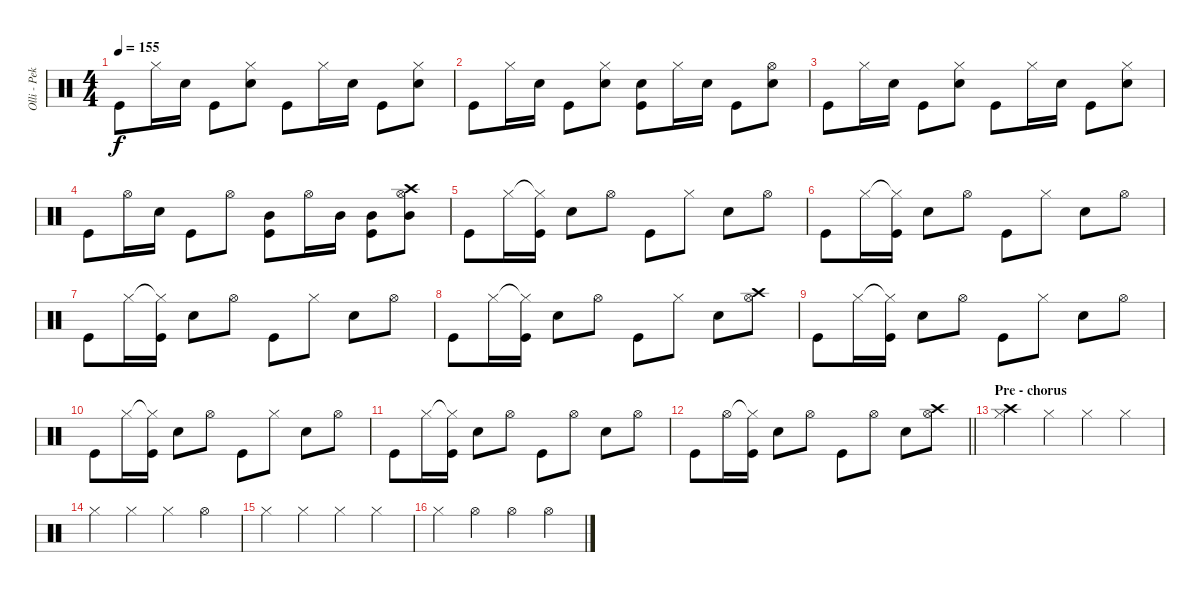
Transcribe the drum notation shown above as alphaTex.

\track ("Olli - Pekka" "Olli - Pek") {instrument percussion}
\staff {score}
\articulation defaults
\ts (4 4)
\tempo 155
\clef neutral
\ks c "Kick (hit)".8{dy f} "Hi-Hat (closed)".16 "Snare (hit) 2".16 "Kick (hit)".8
("Hi-Hat (closed)" "Snare (hit) 2").8 "Kick (hit)".8 "Hi-Hat (closed)".16 "Snare (hit) 2".16 "Kick (hit)".8 ("Hi-Hat (closed)" "Snare (hit) 2").8 |
"Kick (hit)".8 "Hi-Hat (closed)".16 "Snare (hit) 2".16 "Kick (hit)".8 ("Hi-Hat (closed)" "Snare (hit) 2").8 ("Snare (hit) 2" "Kick (hit)").8 "Hi-Hat (closed)".16 "Snare (hit) 2".16 "Kick (hit)".8 ("Hi-Hat (open)" "Snare (hit) 2").8 |
"Kick (hit)".8 "Hi-Hat (closed)".16 "Snare (hit) 2".16 "Kick (hit)".8 ("Hi-Hat (closed)" "Snare (hit) 2").8 "Kick (hit)".8 "Hi-Hat (closed)".16 "Snare (hit) 2".16 "Kick (hit)".8 ("Hi-Hat (closed)" "Snare (hit) 2").8 |
"Kick (hit)".8 "Hi-Hat (open)".16 "Snare (hit) 2".16 "Kick (hit)".8 "Hi-Hat (open)".8 ("Mid Tom (hit)" "Kick (hit)").8 "Hi-Hat (open)".16 "Mid Tom (hit)".16 ("Mid Tom (hit)" "Kick (hit)").8 ("Crash high (hit)" "Hi-Hat (open)" "Mid Tom (hit)").8 |
"Kick (hit)".8 "Hi-Hat (closed)".16 ("Hi-Hat (closed)"{t} "Kick (hit)").16 "Snare (hit) 2".8 "Hi-Hat (open)".8 "Kick (hit)".8 "Hi-Hat (closed)".8 "Snare (hit) 2".8 "Hi-Hat (open)".8 |
"Kick (hit)".8 "Hi-Hat (closed)".16 ("Hi-Hat (closed)"{t} "Kick (hit)").16 "Snare (hit) 2".8 "Hi-Hat (open)".8 "Kick (hit)".8 "Hi-Hat (closed)".8 "Snare (hit) 2".8 "Hi-Hat (open)".8 |
"Kick (hit)".8 "Hi-Hat (closed)".16 ("Hi-Hat (closed)"{t} "Kick (hit)").16 "Snare (hit) 2".8 "Hi-Hat (open)".8 "Kick (hit)".8 "Hi-Hat (closed)".8 "Snare (hit) 2".8 "Hi-Hat (open)".8 |
"Kick (hit)".8 "Hi-Hat (closed)".16 ("Hi-Hat (closed)"{t} "Kick (hit)").16 "Snare (hit) 2".8 "Hi-Hat (open)".8 "Kick (hit)".8 "Hi-Hat (closed)".8 "Snare (hit) 2".8 ("Crash high (hit)" "Hi-Hat (open)").8 |
"Kick (hit)".8 "Hi-Hat (closed)".16 ("Hi-Hat (closed)"{t} "Kick (hit)").16 "Snare (hit) 2".8 "Hi-Hat (open)".8 "Kick (hit)".8 "Hi-Hat (closed)".8 "Snare (hit) 2".8 "Hi-Hat (open)".8 |
"Kick (hit)".8 "Hi-Hat (closed)".16 ("Hi-Hat (closed)"{t} "Kick (hit)").16 "Snare (hit) 2".8 "Hi-Hat (open)".8 "Kick (hit)".8 "Hi-Hat (closed)".8 "Snare (hit) 2".8 "Hi-Hat (open)".8 |
"Kick (hit)".8 "Hi-Hat (closed)".16 ("Hi-Hat (closed)"{t} "Kick (hit)").16 "Snare (hit) 2".8 "Hi-Hat (open)".8 "Kick (hit)".8 "Hi-Hat (open)".8 "Snare (hit) 2".8 "Hi-Hat (open)".8 |
\barLineRight lightlight "Kick (hit)".8 "Hi-Hat (open)".16
("Hi-Hat (closed)"{t} "Kick (hit)").16 "Snare (hit) 2".8 "Hi-Hat (open)".8 "Kick (hit)".8 "Hi-Hat (open)".8 "Snare (hit) 2".8 ("Crash high (hit)" "Hi-Hat (open)").8 |
\section ("" "Pre - chorus")
("Crash high (hit)" "Hi-Hat (closed)").4{volume 11} "Hi-Hat (closed)".4 "Hi-Hat (closed)".4 "Hi-Hat (closed)".4 |
"Hi-Hat (closed)".4 "Hi-Hat (closed)".4 "Hi-Hat (closed)".4 "Hi-Hat (open)".4 |
"Hi-Hat (closed)".4 "Hi-Hat (closed)".4 "Hi-Hat (closed)".4 "Hi-Hat (closed)".4 |
"Hi-Hat (closed)".4 "Hi-Hat (open)".4 "Hi-Hat (open)".4 "Hi-Hat (open)".4
